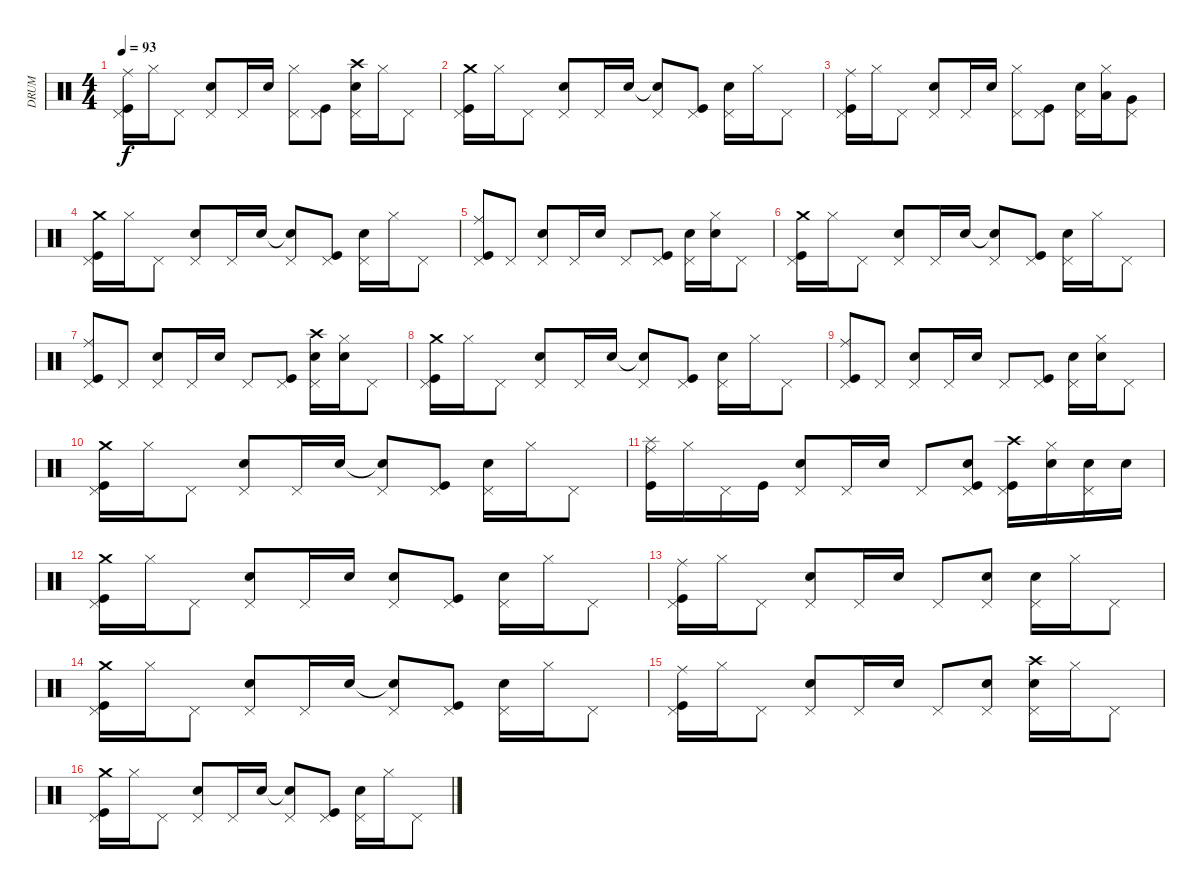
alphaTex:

\track ("DRUM" "DRUM") {instrument percussion}
\staff {score}
\articulation defaults
\ts (4 4)
\tempo 93
\clef neutral
\ks c
("Ride (middle)" "Kick (hit)" "Pedal Hi-Hat (hit)").16{dy f} "Hi-Hat (closed)".16 "Pedal Hi-Hat (hit)".8 ("Snare (hit) 2" "Pedal Hi-Hat (hit)").8 "Pedal Hi-Hat (hit)".16 "Snare (hit) 2".16 ("Hi-Hat (closed)" "Pedal Hi-Hat (hit)").8 ("Kick (hit)" "Pedal Hi-Hat (hit)").8 ("Crash high (hit)" "Snare (hit) 2" "Pedal Hi-Hat (hit)").16 "Hi-Hat (closed)".16 "Pedal Hi-Hat (hit)".8 |
("Crash medium (hit)" "Kick (hit)" "Pedal Hi-Hat (hit)").16 "Hi-Hat (closed)".16 "Pedal Hi-Hat (hit)".8 ("Snare (hit) 2" "Pedal Hi-Hat (hit)").8 "Pedal Hi-Hat (hit)".16 "Snare (hit) 2".16 ("Snare (hit) 2"{t} "Pedal Hi-Hat (hit)").8 ("Kick (hit)" "Pedal Hi-Hat (hit)").8 ("Snare (hit) 2" "Pedal Hi-Hat (hit)").16 "Hi-Hat (closed)".16 "Pedal Hi-Hat (hit)".8 |
("Ride (middle)" "Kick (hit)" "Pedal Hi-Hat (hit)").16 "Hi-Hat (closed)".16 "Pedal Hi-Hat (hit)".8 ("Snare (hit) 2" "Pedal Hi-Hat (hit)").8 "Pedal Hi-Hat (hit)".16 "Snare (hit) 2".16 ("Hi-Hat (closed)" "Pedal Hi-Hat (hit)").8 ("Kick (hit)" "Pedal Hi-Hat (hit)").8 ("Snare (hit) 2" "Pedal Hi-Hat (hit)").16 ("Low Tom (hit)" "Hi-Hat (closed)").16 ("Very Low Tom (hit)" "Pedal Hi-Hat (hit)").8 |
("Crash medium (hit)" "Kick (hit)" "Pedal Hi-Hat (hit)").16 "Hi-Hat (closed)".16 "Pedal Hi-Hat (hit)".8 ("Snare (hit) 2" "Pedal Hi-Hat (hit)").8 "Pedal Hi-Hat (hit)".16 "Snare (hit) 2".16 ("Snare (hit) 2"{t} "Pedal Hi-Hat (hit)").8 ("Kick (hit)" "Pedal Hi-Hat (hit)").8 ("Snare (hit) 2" "Pedal Hi-Hat (hit)").16 "Hi-Hat (closed)".16 "Pedal Hi-Hat (hit)".8 |
("Ride (middle)" "Kick (hit)" "Pedal Hi-Hat (hit)").8 "Pedal Hi-Hat (hit)".8 ("Snare (hit) 2" "Pedal Hi-Hat (hit)").8 "Pedal Hi-Hat (hit)".16 "Snare (hit) 2".16 "Pedal Hi-Hat (hit)".8 ("Kick (hit)" "Pedal Hi-Hat (hit)").8 ("Snare (hit) 2" "Pedal Hi-Hat (hit)").16 ("Hi-Hat (closed)" "Snare (hit) 2").16 "Pedal Hi-Hat (hit)".8 |
("Crash medium (hit)" "Kick (hit)" "Pedal Hi-Hat (hit)").16 "Hi-Hat (closed)".16 "Pedal Hi-Hat (hit)".8 ("Snare (hit) 2" "Pedal Hi-Hat (hit)").8 "Pedal Hi-Hat (hit)".16 "Snare (hit) 2".16 ("Snare (hit) 2"{t} "Pedal Hi-Hat (hit)").8 ("Kick (hit)" "Pedal Hi-Hat (hit)").8 ("Snare (hit) 2" "Pedal Hi-Hat (hit)").16 "Hi-Hat (closed)".16 "Pedal Hi-Hat (hit)".8 |
("Ride (middle)" "Kick (hit)" "Pedal Hi-Hat (hit)").8 "Pedal Hi-Hat (hit)".8 ("Snare (hit) 2" "Pedal Hi-Hat (hit)").8 "Pedal Hi-Hat (hit)".16 "Snare (hit) 2".16 "Pedal Hi-Hat (hit)".8 ("Kick (hit)" "Pedal Hi-Hat (hit)").8 ("Crash high (hit)" "Snare (hit) 2" "Pedal Hi-Hat (hit)").16 ("Hi-Hat (closed)" "Snare (hit) 2").16 "Pedal Hi-Hat (hit)".8 |
("Crash medium (hit)" "Kick (hit)" "Pedal Hi-Hat (hit)").16 "Hi-Hat (closed)".16 "Pedal Hi-Hat (hit)".8 ("Snare (hit) 2" "Pedal Hi-Hat (hit)").8 "Pedal Hi-Hat (hit)".16 "Snare (hit) 2".16 ("Snare (hit) 2"{t} "Pedal Hi-Hat (hit)").8 ("Kick (hit)" "Pedal Hi-Hat (hit)").8 ("Snare (hit) 2" "Pedal Hi-Hat (hit)").16 "Hi-Hat (closed)".16 "Pedal Hi-Hat (hit)".8 |
("Ride (middle)" "Kick (hit)" "Pedal Hi-Hat (hit)").8 "Pedal Hi-Hat (hit)".8 ("Snare (hit) 2" "Pedal Hi-Hat (hit)").8 "Pedal Hi-Hat (hit)".16 "Snare (hit) 2".16 "Pedal Hi-Hat (hit)".8 ("Kick (hit)" "Pedal Hi-Hat (hit)").8 ("Snare (hit) 2" "Pedal Hi-Hat (hit)").16 ("Hi-Hat (closed)" "Snare (hit) 2").16 "Pedal Hi-Hat (hit)".8 |
("Crash medium (hit)" "Kick (hit)" "Pedal Hi-Hat (hit)").16 "Hi-Hat (closed)".16 "Pedal Hi-Hat (hit)".8 ("Snare (hit) 2" "Pedal Hi-Hat (hit)").8 "Pedal Hi-Hat (hit)".16 "Snare (hit) 2".16 ("Snare (hit) 2"{t} "Pedal Hi-Hat (hit)").8 ("Kick (hit)" "Pedal Hi-Hat (hit)").8 ("Snare (hit) 2" "Pedal Hi-Hat (hit)").16 "Hi-Hat (closed)".16 "Pedal Hi-Hat (hit)".8 |
("Ride (middle)" "Kick (hit)" "Splash (hit)").16 "Hi-Hat (closed)".16 "Pedal Hi-Hat (hit)".16 "Kick (hit)".16 ("Snare (hit) 2" "Pedal Hi-Hat (hit)").8 "Pedal Hi-Hat (hit)".16 "Snare (hit) 2".16 "Pedal Hi-Hat (hit)".8 ("Snare (hit) 2" "Kick (hit)" "Pedal Hi-Hat (hit)").8 ("Crash high (hit)" "Kick (hit)" "Pedal Hi-Hat (hit)").16 ("Hi-Hat (closed)" "Snare (hit) 2").16 ("Snare (hit) 2" "Pedal Hi-Hat (hit)").16 "Snare (hit) 2".16 |
("Crash medium (hit)" "Kick (hit)" "Pedal Hi-Hat (hit)").16 "Hi-Hat (closed)".16 "Pedal Hi-Hat (hit)".8 ("Snare (hit) 2" "Pedal Hi-Hat (hit)").8 "Pedal Hi-Hat (hit)".16 "Snare (hit) 2".16 ("Snare (hit) 2" "Pedal Hi-Hat (hit)").8 ("Kick (hit)" "Pedal Hi-Hat (hit)").8 ("Snare (hit) 2" "Pedal Hi-Hat (hit)").16 "Hi-Hat (closed)".16 "Pedal Hi-Hat (hit)".8 |
("Ride (middle)" "Kick (hit)" "Pedal Hi-Hat (hit)").16 "Hi-Hat (closed)".16 "Pedal Hi-Hat (hit)".8 ("Snare (hit) 2" "Pedal Hi-Hat (hit)").8 "Pedal Hi-Hat (hit)".16 "Snare (hit) 2".16 "Pedal Hi-Hat (hit)".8 ("Snare (hit) 2" "Pedal Hi-Hat (hit)").8 ("Snare (hit) 2" "Pedal Hi-Hat (hit)").16 "Hi-Hat (closed)".16 "Pedal Hi-Hat (hit)".8 |
("Crash medium (hit)" "Kick (hit)" "Pedal Hi-Hat (hit)").16 "Hi-Hat (closed)".16 "Pedal Hi-Hat (hit)".8 ("Snare (hit) 2" "Pedal Hi-Hat (hit)").8 "Pedal Hi-Hat (hit)".16 "Snare (hit) 2".16 ("Snare (hit) 2"{t} "Pedal Hi-Hat (hit)").8 ("Kick (hit)" "Pedal Hi-Hat (hit)").8 ("Snare (hit) 2" "Pedal Hi-Hat (hit)").16 "Hi-Hat (closed)".16 "Pedal Hi-Hat (hit)".8 |
("Ride (middle)" "Kick (hit)" "Pedal Hi-Hat (hit)").16 "Hi-Hat (closed)".16 "Pedal Hi-Hat (hit)".8 ("Snare (hit) 2" "Pedal Hi-Hat (hit)").8 "Pedal Hi-Hat (hit)".16 "Snare (hit) 2".16 "Pedal Hi-Hat (hit)".8 ("Snare (hit) 2" "Pedal Hi-Hat (hit)").8 ("Crash high (hit)" "Snare (hit) 2" "Pedal Hi-Hat (hit)").16 "Hi-Hat (closed)".16 "Pedal Hi-Hat (hit)".8 |
("Crash medium (hit)" "Kick (hit)" "Pedal Hi-Hat (hit)").16 "Hi-Hat (closed)".16 "Pedal Hi-Hat (hit)".8 ("Snare (hit) 2" "Pedal Hi-Hat (hit)").8 "Pedal Hi-Hat (hit)".16 "Snare (hit) 2".16 ("Snare (hit) 2"{t} "Pedal Hi-Hat (hit)").8 ("Kick (hit)" "Pedal Hi-Hat (hit)").8 ("Snare (hit) 2" "Pedal Hi-Hat (hit)").16 "Hi-Hat (closed)".16 "Pedal Hi-Hat (hit)".8
